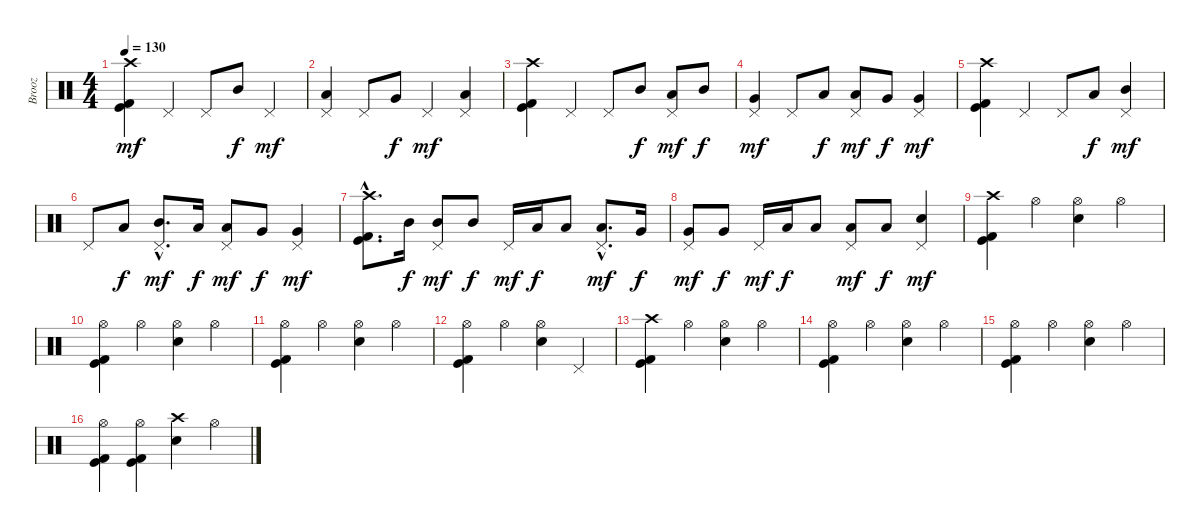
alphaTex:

\track ("Brooz" "Brooz") {instrument percussion}
\staff {score}
\articulation defaults
\ts (4 4)
\tempo 130
\clef neutral
\ks c
("Kick (hit) 2" "Kick (hit)" "Crash high (hit)").4{dy mf} "Pedal Hi-Hat (hit)".4 "Pedal Hi-Hat (hit)".8 "Mid Tom (hit)".8{dy f} "Pedal Hi-Hat (hit)".4{dy mf} |
("Pedal Hi-Hat (hit)" "Low Tom (hit)").4 "Pedal Hi-Hat (hit)".8 "Very Low Tom (hit)".8{dy f} "Pedal Hi-Hat (hit)".4{dy mf} ("Low Floor Tom (hit)" "Pedal Hi-Hat (hit)").4 |
("Kick (hit) 2" "Kick (hit)" "Crash high (hit)").4 "Pedal Hi-Hat (hit)".4 "Pedal Hi-Hat (hit)".8 "Mid Tom (hit)".8{dy f} ("Low Tom (hit)" "Pedal Hi-Hat (hit)").8{dy mf} "Mid Tom (hit)".8{dy f} |
("Pedal Hi-Hat (hit)" "Very Low Tom (hit)").4{dy mf} "Pedal Hi-Hat (hit)".8 "Low Tom (hit)".8{dy f} ("Pedal Hi-Hat (hit)" "Low Tom (hit)").8{dy mf} "Very Low Tom (hit)".8{dy f} ("Pedal Hi-Hat (hit)" "Very Low Tom (hit)").4{dy mf} |
("Kick (hit) 2" "Kick (hit)" "Crash high (hit)").4 "Pedal Hi-Hat (hit)".4 "Pedal Hi-Hat (hit)".8 "Low Tom (hit)".8{dy f} ("Mid Tom (hit)" "Pedal Hi-Hat (hit)").4{dy mf} |
"Pedal Hi-Hat (hit)".8 "Low Tom (hit)".8{dy f} ("Mid Tom (hit)"{hac} "Pedal Hi-Hat (hit)"{hac}).8{d dy mf} "Low Tom (hit)".16{dy f} ("Low Tom (hit)" "Pedal Hi-Hat (hit)").8{dy mf} "Very Low Tom (hit)".8{dy f} ("Very Low Tom (hit)" "Pedal Hi-Hat (hit)").4{dy mf} |
("Kick (hit) 2"{hac} "Kick (hit)"{hac} "Crash high (hit)"{hac}).8{d} "Mid Tom (hit)".16{dy f} ("Pedal Hi-Hat (hit)" "Mid Tom (hit)").8{dy mf} "Mid Tom (hit)".8{dy f} "Pedal Hi-Hat (hit)".16{dy mf} "Low Tom (hit)".16{dy f} "Low Tom (hit)".8 ("Low Tom (hit)"{hac} "Pedal Hi-Hat (hit)"{hac}).8{d dy mf} "Very Low Tom (hit)".16{dy f} |
("Very Low Tom (hit)" "Pedal Hi-Hat (hit)").8{dy mf} "Very Low Tom (hit)".8{dy f} "Pedal Hi-Hat (hit)".16{dy mf} "Low Floor Tom (hit)".16{dy f} "Low Floor Tom (hit)".8 ("Low Floor Tom (hit)" "Pedal Hi-Hat (hit)").8{dy mf} "Low Floor Tom (hit)".8{dy f} ("Snare (hit) 2" "Pedal Hi-Hat (hit)").4{dy mf} |
("Crash high (hit)" "Kick (hit) 2" "Kick (hit)").4 "Hi-Hat (open)".4 ("Hi-Hat (open)" "Snare (hit) 2").4 "Hi-Hat (open)".4 |
("Hi-Hat (open)" "Kick (hit) 2" "Kick (hit)").4 "Hi-Hat (open)".4 ("Hi-Hat (open)" "Snare (hit) 2").4 "Hi-Hat (open)".4 |
("Hi-Hat (open)" "Kick (hit) 2" "Kick (hit)").4 "Hi-Hat (open)".4 ("Hi-Hat (open)" "Snare (hit) 2").4 "Hi-Hat (open)".4 |
("Hi-Hat (open)" "Kick (hit) 2" "Kick (hit)").4 "Hi-Hat (open)".4 ("Hi-Hat (open)" "Snare (hit) 2").4 "Pedal Hi-Hat (hit)".4 |
("Crash high (hit)" "Kick (hit) 2" "Kick (hit)").4 "Hi-Hat (open)".4 ("Hi-Hat (open)" "Snare (hit) 2").4 "Hi-Hat (open)".4 |
("Hi-Hat (open)" "Kick (hit) 2" "Kick (hit)").4 "Hi-Hat (open)".4 ("Hi-Hat (open)" "Snare (hit) 2").4 "Hi-Hat (open)".4 |
("Hi-Hat (open)" "Kick (hit) 2" "Kick (hit)").4 "Hi-Hat (open)".4 ("Hi-Hat (open)" "Snare (hit) 2").4 "Hi-Hat (open)".4 |
("Hi-Hat (open)" "Kick (hit) 2" "Kick (hit)").4 ("Hi-Hat (open)" "Kick (hit) 2" "Kick (hit)").4 ("Crash high (hit)" "Snare (hit) 2").4 "Hi-Hat (open)".4
